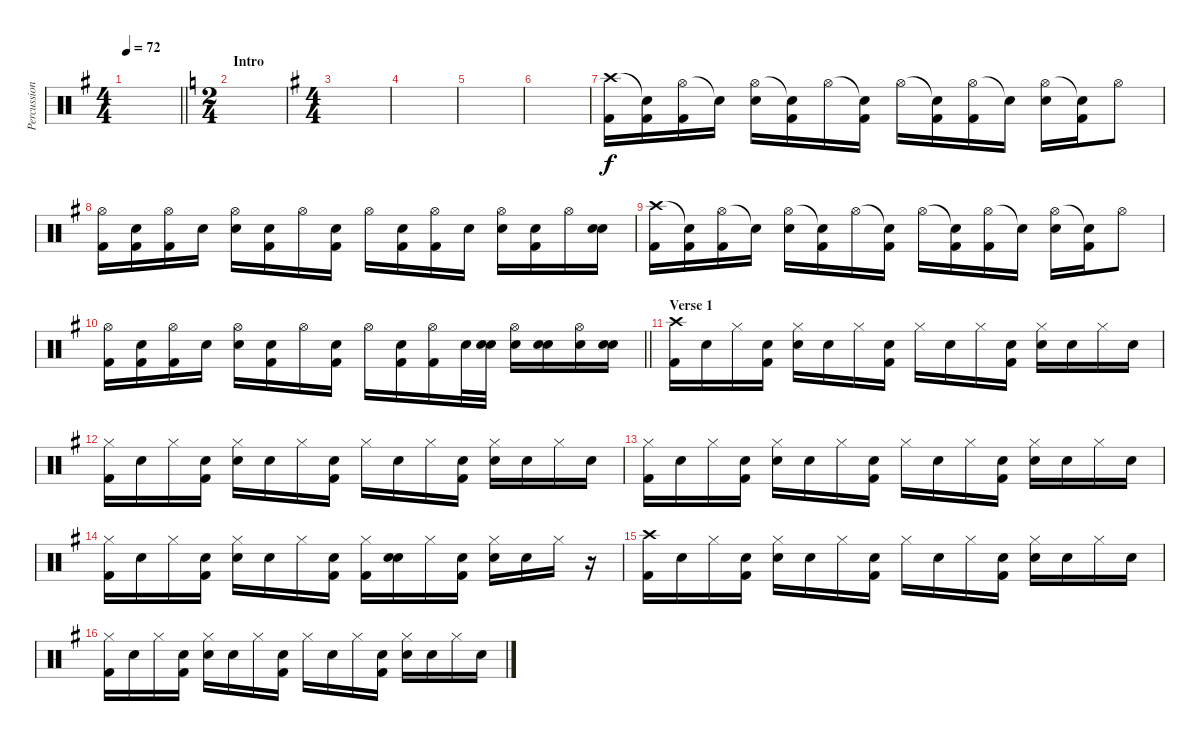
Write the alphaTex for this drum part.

\track ("Percussion" "Percussion") {instrument percussion}
\staff {score}
\articulation defaults
\ts (4 4)
\tempo 72
\clef neutral
\barLineRight lightlight
\ks g
|
\ts (2 4)
\section ("" "Intro")
\ks c
|
\ts (4 4)
\ks g
|
|
|
|
("Crash high (hit)" "Kick (hit) 2").16 ("Snare (hit)"{t} "Kick (hit) 2").16 ("Hi-Hat (open)" "Kick (hit) 2").16 "Snare (hit)"{t}.16 ("Hi-Hat (open)" "Electric Snare (hit)").16 ("Snare (hit)"{t} "Kick (hit) 2").16 "Hi-Hat (open)".16 ("Snare (hit)"{t} "Kick (hit) 2").16 "Hi-Hat (open)".16 ("Snare (hit)"{t} "Kick (hit) 2").16 ("Hi-Hat (open)" "Kick (hit) 2").16 "Snare (hit)"{t}.16 ("Hi-Hat (open)" "Electric Snare (hit)").16 ("Snare (hit)"{t} "Kick (hit) 2").16 "Hi-Hat (open)".8 |
("Hi-Hat (open)" "Kick (hit) 2").16 ("Snare (hit)" "Kick (hit) 2").16 ("Hi-Hat (open)" "Kick (hit) 2").16 "Snare (hit)".16 ("Hi-Hat (open)" "Electric Snare (hit)").16 ("Snare (hit)" "Kick (hit) 2").16 "Hi-Hat (open)".16 ("Snare (hit)" "Kick (hit) 2").16 "Hi-Hat (open)".16 ("Snare (hit)" "Kick (hit) 2").16 ("Hi-Hat (open)" "Kick (hit) 2").16 "Snare (hit)".16 ("Hi-Hat (open)" "Electric Snare (hit)").16 ("Snare (hit)" "Kick (hit) 2").16 "Hi-Hat (open)".16 ("Snare (hit)" "Electric Snare (hit)").16 |
("Crash high (hit)" "Kick (hit) 2").16 ("Snare (hit)"{t} "Kick (hit) 2").16 ("Hi-Hat (open)" "Kick (hit) 2").16 "Snare (hit)"{t}.16 ("Hi-Hat (open)" "Electric Snare (hit)").16 ("Snare (hit)"{t} "Kick (hit) 2").16 "Hi-Hat (open)".16 ("Snare (hit)"{t} "Kick (hit) 2").16 "Hi-Hat (open)".16 ("Snare (hit)"{t} "Kick (hit) 2").16 ("Hi-Hat (open)" "Kick (hit) 2").16 "Snare (hit)"{t}.16 ("Hi-Hat (open)" "Electric Snare (hit)").16 ("Snare (hit)"{t} "Kick (hit) 2").16 "Hi-Hat (open)".8 |
\barLineRight lightlight
("Hi-Hat (open)" "Kick (hit) 2").16 ("Snare (hit)" "Kick (hit) 2").16 ("Hi-Hat (open)" "Kick (hit) 2").16 "Snare (hit)".16 ("Hi-Hat (open)" "Electric Snare (hit)").16 ("Snare (hit)" "Kick (hit) 2").16 "Hi-Hat (open)".16 ("Snare (hit)" "Kick (hit) 2").16 "Hi-Hat (open)".16 ("Snare (hit)" "Kick (hit) 2").16 ("Hi-Hat (open)" "Kick (hit) 2").16 "Electric Snare (hit)".32 ("Snare (hit)" "Electric Snare (hit)").32 ("Hi-Hat (open)" "Electric Snare (hit)").16 ("Snare (hit)" "Electric Snare (hit)").16 ("Hi-Hat (open)" "Electric Snare (hit)").16 ("Snare (hit)" "Electric Snare (hit)").16 |
\section ("" "Verse 1")
("Crash high (hit)" "Kick (hit) 2").16 "Snare (hit)".16 "Hi-Hat (closed)".16 ("Snare (hit)" "Kick (hit) 2").16 ("Hi-Hat (closed)" "Snare (hit) 2").16 "Snare (hit)".16 "Hi-Hat (closed)".16 ("Snare (hit)" "Kick (hit) 2").16 "Hi-Hat (closed)".16 "Snare (hit)".16 "Hi-Hat (closed)".16 ("Snare (hit)" "Kick (hit) 2").16 ("Hi-Hat (closed)" "Snare (hit) 2").16 "Snare (hit)".16 "Hi-Hat (closed)".16 "Snare (hit)".16 |
("Hi-Hat (closed)" "Kick (hit) 2").16 "Snare (hit)".16 "Hi-Hat (closed)".16 ("Snare (hit)" "Kick (hit) 2").16 ("Hi-Hat (closed)" "Snare (hit) 2").16 "Snare (hit)".16 "Hi-Hat (closed)".16 ("Snare (hit)" "Kick (hit) 2").16 "Hi-Hat (closed)".16 "Snare (hit)".16 "Hi-Hat (closed)".16 ("Snare (hit)" "Kick (hit) 2").16 ("Hi-Hat (closed)" "Snare (hit) 2").16 "Snare (hit)".16 "Hi-Hat (closed)".16 "Snare (hit)".16 |
("Hi-Hat (closed)" "Kick (hit) 2").16 "Snare (hit)".16 "Hi-Hat (closed)".16 ("Snare (hit)" "Kick (hit) 2").16 ("Hi-Hat (closed)" "Snare (hit) 2").16 "Snare (hit)".16 "Hi-Hat (closed)".16 ("Snare (hit)" "Kick (hit) 2").16 "Hi-Hat (closed)".16 "Snare (hit)".16 "Hi-Hat (closed)".16 ("Snare (hit)" "Kick (hit) 2").16 ("Hi-Hat (closed)" "Snare (hit) 2").16 "Snare (hit)".16 "Hi-Hat (closed)".16 "Snare (hit)".16 |
("Hi-Hat (closed)" "Kick (hit) 2").16 "Snare (hit)".16 "Hi-Hat (closed)".16 ("Snare (hit)" "Kick (hit) 2").16 ("Hi-Hat (closed)" "Snare (hit) 2").16 "Snare (hit)".16 "Hi-Hat (closed)".16 ("Snare (hit)" "Kick (hit) 2").16 ("Hi-Hat (closed)" "Kick (hit) 2").16 ("Snare (hit)" "Snare (hit) 2").16 "Hi-Hat (closed)".16 ("Snare (hit)" "Kick (hit) 2").16 ("Hi-Hat (closed)" "Snare (hit) 2").16 "Snare (hit)".16 "Hi-Hat (closed)".16 r.16 |
("Crash high (hit)" "Kick (hit) 2").16 "Snare (hit)".16 "Hi-Hat (closed)".16 ("Snare (hit)" "Kick (hit) 2").16 ("Hi-Hat (closed)" "Snare (hit) 2").16 "Snare (hit)".16 "Hi-Hat (closed)".16 ("Snare (hit)" "Kick (hit) 2").16 "Hi-Hat (closed)".16 "Snare (hit)".16 "Hi-Hat (closed)".16 ("Snare (hit)" "Kick (hit) 2").16 ("Hi-Hat (closed)" "Snare (hit) 2").16 "Snare (hit)".16 "Hi-Hat (closed)".16 "Snare (hit)".16 |
("Hi-Hat (closed)" "Kick (hit) 2").16 "Snare (hit)".16 "Hi-Hat (closed)".16 ("Snare (hit)" "Kick (hit) 2").16 ("Hi-Hat (closed)" "Snare (hit) 2").16 "Snare (hit)".16 "Hi-Hat (closed)".16 ("Snare (hit)" "Kick (hit) 2").16 "Hi-Hat (closed)".16 "Snare (hit)".16 "Hi-Hat (closed)".16 ("Snare (hit)" "Kick (hit) 2").16 ("Hi-Hat (closed)" "Snare (hit) 2").16 "Snare (hit)".16 "Hi-Hat (closed)".16 "Snare (hit)".16
